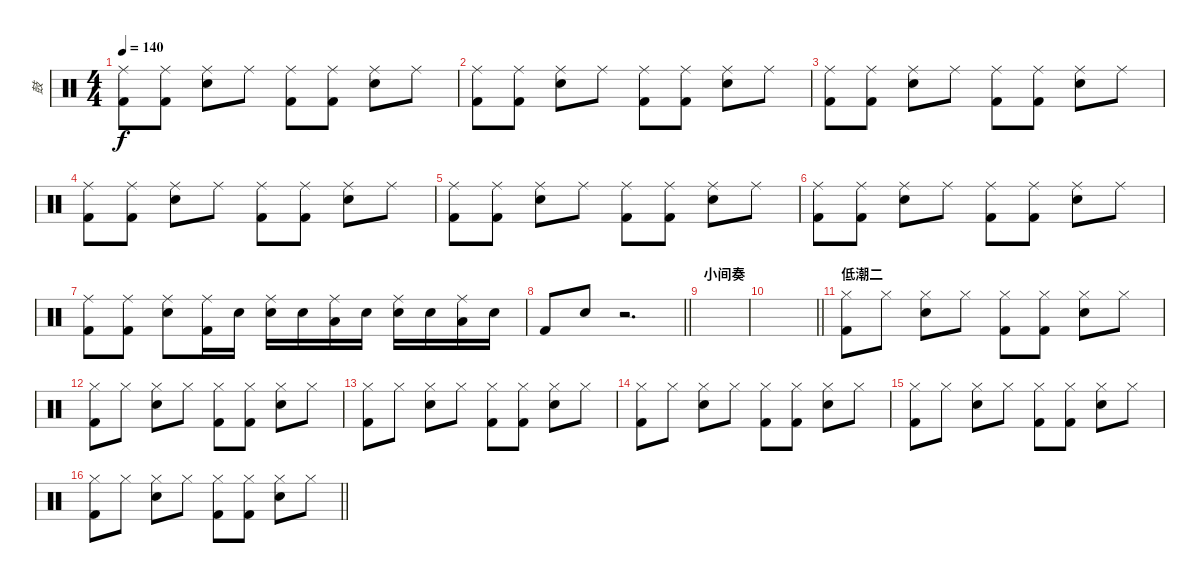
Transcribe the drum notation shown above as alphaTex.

\track ("鼓" "鼓") {instrument percussion}
\staff {score}
\articulation defaults
\ts (4 4)
\tempo 140
\clef neutral
\ks c
("Ride (middle)" "Kick (hit) 2").8{dy f} ("Ride (middle)" "Kick (hit) 2").8 ("Ride (middle)" "Snare (hit) 2").8 "Ride (middle)".8 ("Ride (middle)" "Kick (hit) 2").8 ("Ride (middle)" "Kick (hit) 2").8 ("Ride (middle)" "Snare (hit) 2").8 "Ride (middle)".8 |
("Ride (middle)" "Kick (hit) 2").8 ("Ride (middle)" "Kick (hit) 2").8 ("Ride (middle)" "Snare (hit) 2").8 "Ride (middle)".8 ("Ride (middle)" "Kick (hit) 2").8 ("Ride (middle)" "Kick (hit) 2").8 ("Ride (middle)" "Snare (hit) 2").8 "Ride (middle)".8 |
("Ride (middle)" "Kick (hit) 2").8 ("Ride (middle)" "Kick (hit) 2").8 ("Ride (middle)" "Snare (hit) 2").8 "Ride (middle)".8 ("Ride (middle)" "Kick (hit) 2").8 ("Ride (middle)" "Kick (hit) 2").8 ("Ride (middle)" "Snare (hit) 2").8 "Ride (middle)".8 |
("Ride (middle)" "Kick (hit) 2").8 ("Ride (middle)" "Kick (hit) 2").8 ("Ride (middle)" "Snare (hit) 2").8 "Ride (middle)".8 ("Ride (middle)" "Kick (hit) 2").8 ("Ride (middle)" "Kick (hit) 2").8 ("Ride (middle)" "Snare (hit) 2").8 "Ride (middle)".8 |
("Ride (middle)" "Kick (hit) 2").8 ("Ride (middle)" "Kick (hit) 2").8 ("Ride (middle)" "Snare (hit) 2").8 "Ride (middle)".8 ("Ride (middle)" "Kick (hit) 2").8 ("Ride (middle)" "Kick (hit) 2").8 ("Ride (middle)" "Snare (hit) 2").8 "Ride (middle)".8 |
("Ride (middle)" "Kick (hit) 2").8 ("Ride (middle)" "Kick (hit) 2").8 ("Ride (middle)" "Snare (hit) 2").8 "Ride (middle)".8 ("Ride (middle)" "Kick (hit) 2").8 ("Ride (middle)" "Kick (hit) 2").8 ("Ride (middle)" "Snare (hit) 2").8 "Ride (middle)".8 |
("Ride (middle)" "Kick (hit) 2").8 ("Ride (middle)" "Kick (hit) 2").8 ("Ride (middle)" "Snare (hit) 2").8 ("Ride (middle)" "Kick (hit) 2").16 "Snare (hit) 2".16 ("Ride (middle)" "Snare (hit) 2").16 "Snare (hit) 2".16 ("Ride (middle)" "Low Tom (hit)").16 "Snare (hit) 2".16 ("Ride (middle)" "Snare (hit) 2").16 "Snare (hit) 2".16 ("Ride (middle)" "Low Tom (hit)").16 "Snare (hit) 2".16 |
\barLineRight lightlight "Kick (hit) 2".8 "Snare (hit) 2".8
r.2{d} |
\section ("" "小间奏")
|
\barLineRight lightlight
|
\section ("" "低潮二")
("Hi-Hat (closed)" "Kick (hit) 2").8 "Hi-Hat (closed)".8 ("Hi-Hat (closed)" "Snare (hit) 2").8 "Hi-Hat (closed)".8 ("Hi-Hat (closed)" "Kick (hit) 2").8 ("Hi-Hat (closed)" "Kick (hit) 2").8 ("Hi-Hat (closed)" "Snare (hit) 2").8 "Hi-Hat (closed)".8 |
("Hi-Hat (closed)" "Kick (hit) 2").8 "Hi-Hat (closed)".8 ("Hi-Hat (closed)" "Snare (hit) 2").8 "Hi-Hat (closed)".8 ("Hi-Hat (closed)" "Kick (hit) 2").8 ("Hi-Hat (closed)" "Kick (hit) 2").8 ("Hi-Hat (closed)" "Snare (hit) 2").8 "Hi-Hat (closed)".8 |
("Hi-Hat (closed)" "Kick (hit) 2").8 "Hi-Hat (closed)".8 ("Hi-Hat (closed)" "Snare (hit) 2").8 "Hi-Hat (closed)".8 ("Hi-Hat (closed)" "Kick (hit) 2").8 ("Hi-Hat (closed)" "Kick (hit) 2").8 ("Hi-Hat (closed)" "Snare (hit) 2").8 "Hi-Hat (closed)".8 |
("Hi-Hat (closed)" "Kick (hit) 2").8 "Hi-Hat (closed)".8 ("Hi-Hat (closed)" "Snare (hit) 2").8 "Hi-Hat (closed)".8 ("Hi-Hat (closed)" "Kick (hit) 2").8 ("Hi-Hat (closed)" "Kick (hit) 2").8 ("Hi-Hat (closed)" "Snare (hit) 2").8 "Hi-Hat (closed)".8 |
("Hi-Hat (closed)" "Kick (hit) 2").8 "Hi-Hat (closed)".8 ("Hi-Hat (closed)" "Snare (hit) 2").8 "Hi-Hat (closed)".8 ("Hi-Hat (closed)" "Kick (hit) 2").8 ("Hi-Hat (closed)" "Kick (hit) 2").8 ("Hi-Hat (closed)" "Snare (hit) 2").8 "Hi-Hat (closed)".8 |
\barLineRight lightlight
("Hi-Hat (closed)" "Kick (hit) 2").8 "Hi-Hat (closed)".8 ("Hi-Hat (closed)" "Snare (hit) 2").8 "Hi-Hat (closed)".8 ("Hi-Hat (closed)" "Kick (hit) 2").8 ("Hi-Hat (closed)" "Kick (hit) 2").8 ("Hi-Hat (closed)" "Snare (hit) 2").8 "Hi-Hat (closed)".8
